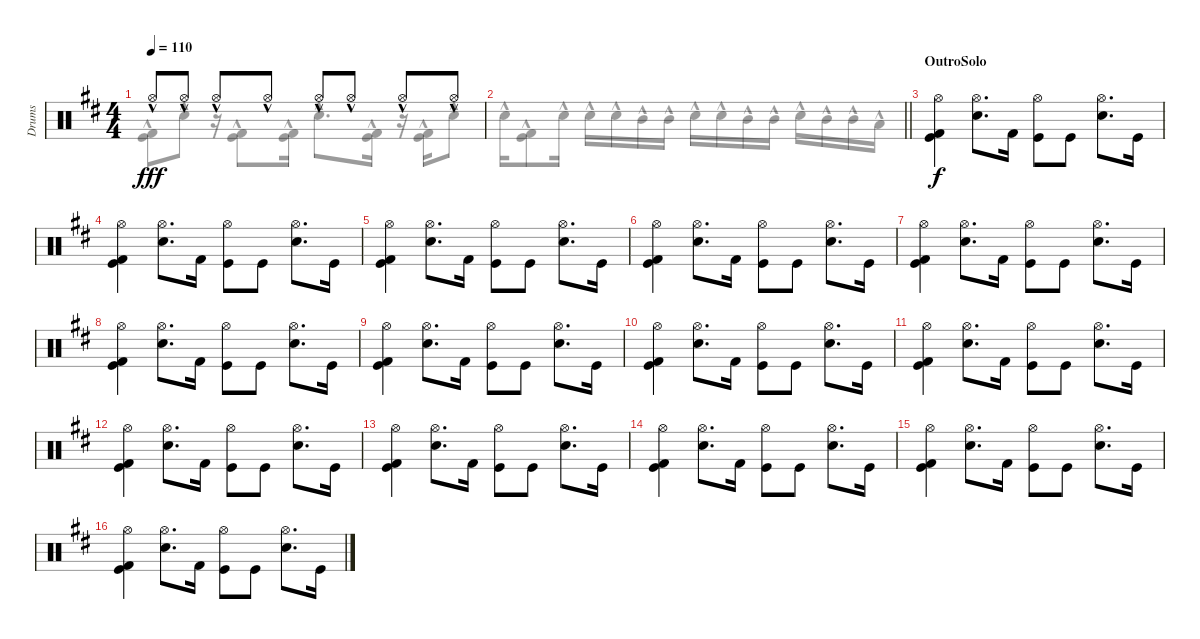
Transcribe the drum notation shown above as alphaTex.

\track ("Drums" "Drums") {instrument percussion}
\staff {score}
\articulation defaults
\voice
\ts (4 4)
\tempo 110
\clef neutral
\ks d "Hi-Hat (open)"{hac}.8{dy fff} "Hi-Hat (open)"{hac}.8 "Hi-Hat (open)"{hac}.8 "Hi-Hat (open)"{hac}.8 "Hi-Hat (open)"{hac}.8 "Hi-Hat (open)"{hac}.8 "Hi-Hat (open)"{hac}.8 "Hi-Hat (open)"{hac}.8
|
\barLineRight lightlight
|
\section ("" "OutroSolo")
("Kick (hit) 2" "Kick (hit)" "Hi-Hat (open)").4{dy f} ("Snare (hit) 2" "Hi-Hat (open)").8{d} "Kick (hit) 2".16 ("Kick (hit)" "Hi-Hat (open)").8 "Kick (hit)".8 ("Snare (hit) 2" "Hi-Hat (open)").8{d} "Kick (hit)".16 |
("Kick (hit) 2" "Kick (hit)" "Hi-Hat (open)").4 ("Snare (hit) 2" "Hi-Hat (open)").8{d} "Kick (hit) 2".16 ("Kick (hit)" "Hi-Hat (open)").8 "Kick (hit)".8 ("Snare (hit) 2" "Hi-Hat (open)").8{d} "Kick (hit)".16 |
("Kick (hit) 2" "Kick (hit)" "Hi-Hat (open)").4 ("Snare (hit) 2" "Hi-Hat (open)").8{d} "Kick (hit) 2".16 ("Kick (hit)" "Hi-Hat (open)").8 "Kick (hit)".8 ("Snare (hit) 2" "Hi-Hat (open)").8{d} "Kick (hit)".16 |
("Kick (hit) 2" "Kick (hit)" "Hi-Hat (open)").4 ("Snare (hit) 2" "Hi-Hat (open)").8{d} "Kick (hit) 2".16 ("Kick (hit)" "Hi-Hat (open)").8 "Kick (hit)".8 ("Snare (hit) 2" "Hi-Hat (open)").8{d} "Kick (hit)".16 |
("Kick (hit) 2" "Kick (hit)" "Hi-Hat (open)").4 ("Snare (hit) 2" "Hi-Hat (open)").8{d} "Kick (hit) 2".16 ("Kick (hit)" "Hi-Hat (open)").8 "Kick (hit)".8 ("Snare (hit) 2" "Hi-Hat (open)").8{d} "Kick (hit)".16 |
("Kick (hit) 2" "Kick (hit)" "Hi-Hat (open)").4 ("Snare (hit) 2" "Hi-Hat (open)").8{d} "Kick (hit) 2".16 ("Kick (hit)" "Hi-Hat (open)").8 "Kick (hit)".8 ("Snare (hit) 2" "Hi-Hat (open)").8{d} "Kick (hit)".16 |
("Kick (hit) 2" "Kick (hit)" "Hi-Hat (open)").4 ("Snare (hit) 2" "Hi-Hat (open)").8{d} "Kick (hit) 2".16 ("Kick (hit)" "Hi-Hat (open)").8 "Kick (hit)".8 ("Snare (hit) 2" "Hi-Hat (open)").8{d} "Kick (hit)".16 |
("Kick (hit) 2" "Kick (hit)" "Hi-Hat (open)").4 ("Snare (hit) 2" "Hi-Hat (open)").8{d} "Kick (hit) 2".16 ("Kick (hit)" "Hi-Hat (open)").8 "Kick (hit)".8 ("Snare (hit) 2" "Hi-Hat (open)").8{d} "Kick (hit)".16 |
("Kick (hit) 2" "Kick (hit)" "Hi-Hat (open)").4 ("Snare (hit) 2" "Hi-Hat (open)").8{d} "Kick (hit) 2".16 ("Kick (hit)" "Hi-Hat (open)").8 "Kick (hit)".8 ("Snare (hit) 2" "Hi-Hat (open)").8{d} "Kick (hit)".16 |
("Kick (hit) 2" "Kick (hit)" "Hi-Hat (open)").4 ("Snare (hit) 2" "Hi-Hat (open)").8{d} "Kick (hit) 2".16 ("Kick (hit)" "Hi-Hat (open)").8 "Kick (hit)".8 ("Snare (hit) 2" "Hi-Hat (open)").8{d} "Kick (hit)".16 |
("Kick (hit) 2" "Kick (hit)" "Hi-Hat (open)").4 ("Snare (hit) 2" "Hi-Hat (open)").8{d} "Kick (hit) 2".16 ("Kick (hit)" "Hi-Hat (open)").8 "Kick (hit)".8 ("Snare (hit) 2" "Hi-Hat (open)").8{d} "Kick (hit)".16 |
("Kick (hit) 2" "Kick (hit)" "Hi-Hat (open)").4 ("Snare (hit) 2" "Hi-Hat (open)").8{d} "Kick (hit) 2".16 ("Kick (hit)" "Hi-Hat (open)").8 "Kick (hit)".8 ("Snare (hit) 2" "Hi-Hat (open)").8{d} "Kick (hit)".16 |
("Kick (hit) 2" "Kick (hit)" "Hi-Hat (open)").4 ("Snare (hit) 2" "Hi-Hat (open)").8{d} "Kick (hit) 2".16 ("Kick (hit)" "Hi-Hat (open)").8 "Kick (hit)".8 ("Snare (hit) 2" "Hi-Hat (open)").8{d} "Kick (hit)".16 |
("Kick (hit) 2" "Kick (hit)" "Hi-Hat (open)").4 ("Snare (hit) 2" "Hi-Hat (open)").8{d} "Kick (hit) 2".16 ("Kick (hit)" "Hi-Hat (open)").8 "Kick (hit)".8 ("Snare (hit) 2" "Hi-Hat (open)").8{d} "Kick (hit)".16
\voice
\clef neutral
\ottava regular
\simile none
\ks d
("Kick (hit)"{hac} "Kick (hit) 2"{hac}).8{dy fff} "Electric Snare (hit)"{hac}.8 r.16 ("Kick (hit) 2"{hac} "Kick (hit)"{hac}).8 ("Kick (hit)"{hac} "Kick (hit) 2"{hac}).16 "Electric Snare (hit)"{hac}.8{d} ("Kick (hit) 2"{hac} "Kick (hit)"{hac}).16 r.16 ("Kick (hit) 2"{hac} "Kick (hit)"{hac}).16 "Electric Snare (hit)"{hac}.8 |
\barLineRight lightlight "Electric Snare (hit)"{hac}.16
("Kick (hit)"{hac} "Kick (hit) 2"{hac}).8 "Electric Snare (hit)"{hac}.16 "Electric Snare (hit)"{hac}.16 "Electric Snare (hit)"{hac}.16 "Mid Tom (hit)"{hac}.16 "Mid Tom (hit)"{hac}.16 "Electric Snare (hit)"{hac}.16 "Electric Snare (hit)"{hac}.16 "Mid Tom (hit)"{hac}.16 "Mid Tom (hit)"{hac}.16 "Electric Snare (hit)"{hac}.16 "Mid Tom (hit)"{hac}.16 "Mid Tom (hit)"{hac}.16 "Low Tom (hit)"{hac}.16 |
|
|
|
|
|
|
|
|
|
|
|
|
|
